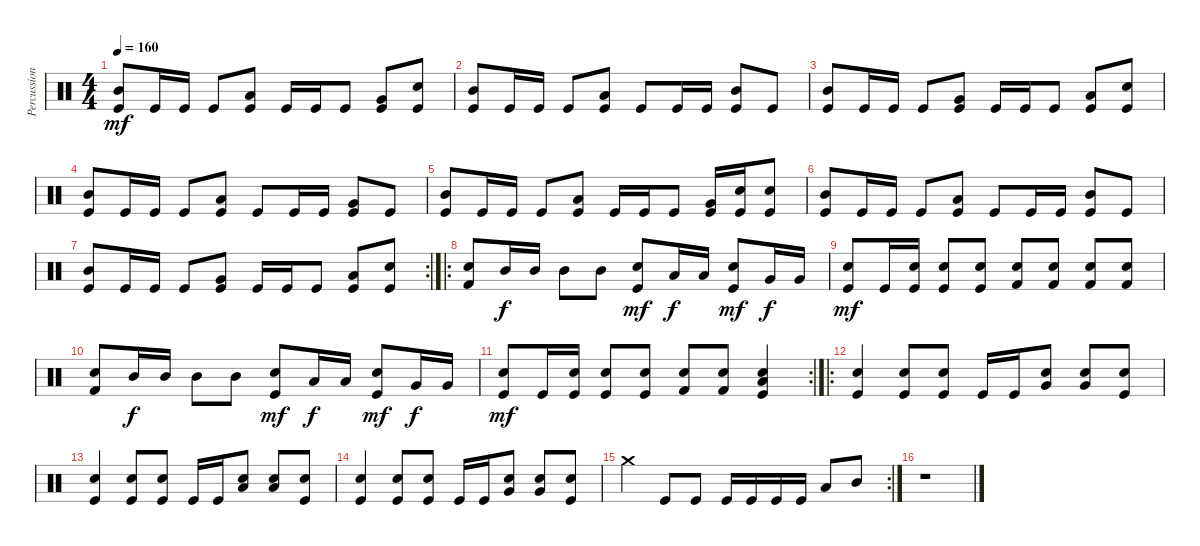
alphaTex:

\track ("Percussion" "Percussion") {instrument percussion}
\staff {score}
\articulation defaults
\ts (4 4)
\tempo 160
\clef neutral
\ks c
("Kick (hit)" "Mid Tom (hit)").8{dy mf} "Kick (hit)".16 "Kick (hit)".16 "Kick (hit)".8 ("Kick (hit)" "Low Tom (hit)").8 "Kick (hit)".16 "Kick (hit)".16 "Kick (hit)".8 ("Kick (hit)" "Very Low Tom (hit)").8 ("Kick (hit)" "Electric Snare (hit)").8 |
("Kick (hit)" "Mid Tom (hit)").8 "Kick (hit)".16 "Kick (hit)".16 "Kick (hit)".8 ("Kick (hit)" "Low Tom (hit)").8 "Kick (hit)".8 "Kick (hit)".16 "Kick (hit)".16 ("Kick (hit)" "Mid Tom (hit)").8 "Kick (hit)".8 |
("Kick (hit)" "Mid Tom (hit)").8 "Kick (hit)".16 "Kick (hit)".16 "Kick (hit)".8 ("Kick (hit)" "Very Low Tom (hit)").8 "Kick (hit)".16 "Kick (hit)".16 "Kick (hit)".8 ("Kick (hit)" "Low Tom (hit)").8 ("Kick (hit)" "Electric Snare (hit)").8 |
("Kick (hit)" "Mid Tom (hit)").8 "Kick (hit)".16 "Kick (hit)".16 "Kick (hit)".8 ("Kick (hit)" "Low Tom (hit)").8 "Kick (hit)".8 "Kick (hit)".16 "Kick (hit)".16 ("Kick (hit)" "Very Low Tom (hit)").8 "Kick (hit)".8 |
("Kick (hit)" "Mid Tom (hit)").8 "Kick (hit)".16 "Kick (hit)".16 "Kick (hit)".8 ("Kick (hit)" "Low Tom (hit)").8 "Kick (hit)".16 "Kick (hit)".16 "Kick (hit)".8 ("Kick (hit)" "Very Low Tom (hit)").16 ("Kick (hit)" "Electric Snare (hit)").16 ("Kick (hit)" "Snare (hit) 2").8 |
("Kick (hit)" "Mid Tom (hit)").8 "Kick (hit)".16 "Kick (hit)".16 "Kick (hit)".8 ("Kick (hit)" "Low Tom (hit)").8 "Kick (hit)".8 "Kick (hit)".16 "Kick (hit)".16 ("Kick (hit)" "Mid Tom (hit)").8 "Kick (hit)".8 |
\rc 2
("Kick (hit)" "Mid Tom (hit)").8 "Kick (hit)".16 "Kick (hit)".16 "Kick (hit)".8 ("Kick (hit)" "Very Low Tom (hit)").8 "Kick (hit)".16 "Kick (hit)".16 "Kick (hit)".8 ("Kick (hit)" "Low Tom (hit)").8 ("Kick (hit)" "Electric Snare (hit)").8 |
\ro
("Electric Snare (hit)" "Kick (hit) 2").8 "Mid Tom (hit)".16{dy f} "Mid Tom (hit)".16 "Mid Tom (hit)".8 "Mid Tom (hit)".8 ("Electric Snare (hit)" "Kick (hit)").8{dy mf} "Low Tom (hit)".16{dy f} "Low Tom (hit)".16 ("Snare (hit) 2" "Kick (hit)").8{dy mf} "Very Low Tom (hit)".16{dy f} "Very Low Tom (hit)".16 |
("Electric Snare (hit)" "Kick (hit)").8{dy mf} "Kick (hit)".16 ("Snare (hit) 2" "Kick (hit)").16 ("Snare (hit) 2" "Kick (hit)").8 ("Snare (hit) 2" "Kick (hit)").8 ("Snare (hit) 2" "Kick (hit) 2").8 ("Snare (hit) 2" "Kick (hit) 2").8 ("Snare (hit) 2" "Kick (hit) 2").8 ("Electric Snare (hit)" "Kick (hit) 2").8 |
("Electric Snare (hit)" "Kick (hit) 2").8 "Mid Tom (hit)".16{dy f} "Mid Tom (hit)".16 "Mid Tom (hit)".8 "Mid Tom (hit)".8 ("Electric Snare (hit)" "Kick (hit)").8{dy mf} "Low Tom (hit)".16{dy f} "Low Tom (hit)".16 ("Snare (hit) 2" "Kick (hit)").8{dy mf} "Very Low Tom (hit)".16{dy f} "Very Low Tom (hit)".16 |
\rc 2
("Electric Snare (hit)" "Kick (hit)").8{dy mf} "Kick (hit)".16 ("Snare (hit) 2" "Kick (hit)").16 ("Snare (hit) 2" "Kick (hit)").8 ("Snare (hit) 2" "Kick (hit)").8 ("Snare (hit) 2" "Kick (hit) 2").8 ("Snare (hit) 2" "Kick (hit) 2").8 ("Snare (hit) 2" "Kick (hit)" "Low Tom (hit)").4 |
\ro
("Snare (hit) 2" "Kick (hit)").4 ("Snare (hit) 2" "Kick (hit)").8 ("Snare (hit) 2" "Kick (hit)").8 "Kick (hit)".16 "Kick (hit)".16 ("Snare (hit) 2" "Very Low Tom (hit)").8 ("Snare (hit) 2" "Very Low Tom (hit)").8 ("Snare (hit) 2" "Kick (hit)").8 |
("Electric Snare (hit)" "Kick (hit)").4 ("Electric Snare (hit)" "Kick (hit)").8 ("Electric Snare (hit)" "Kick (hit)").8 "Kick (hit)".16 "Kick (hit)".16 ("Electric Snare (hit)" "Low Tom (hit)").8 ("Electric Snare (hit)" "Low Tom (hit)").8 ("Electric Snare (hit)" "Kick (hit)").8 |
("Snare (hit) 2" "Kick (hit)").4 ("Snare (hit) 2" "Kick (hit)").8 ("Snare (hit) 2" "Kick (hit)").8 "Kick (hit)".16 "Kick (hit)".16 ("Snare (hit) 2" "Very Low Tom (hit)").8 ("Snare (hit) 2" "Very Low Tom (hit)").8 ("Snare (hit) 2" "Kick (hit)").8 |
\rc 2 "Crash medium (hit)".4 "Kick (hit)".8 "Kick (hit)".8 "Kick (hit)".16 "Kick (hit)".16 "Kick (hit)".16 "Kick (hit)".16 "Low Tom (hit)".8 "Mid Tom (hit)".8
|
r.1
